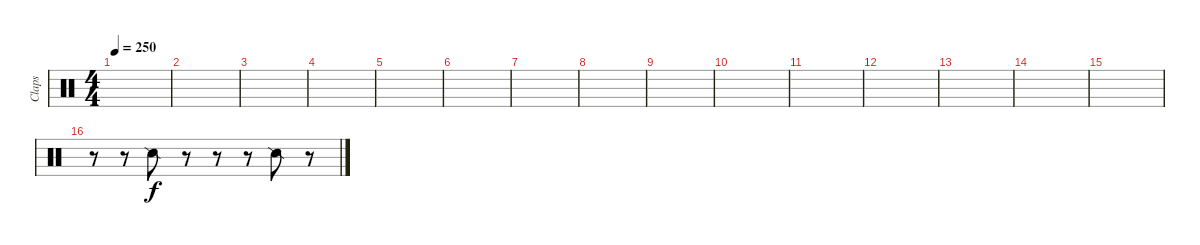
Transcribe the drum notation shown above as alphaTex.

\track ("Claps" "Claps") {instrument percussion}
\staff {score}
\articulation defaults
\ts (4 4)
\tempo 250
\clef neutral
\ks c
|
|
|
|
|
|
|
|
|
|
|
|
|
|
|
r.8 r.8 "Snare (side stick) 2".8 r.8 r.8 r.8 "Snare (side stick) 2".8 r.8
